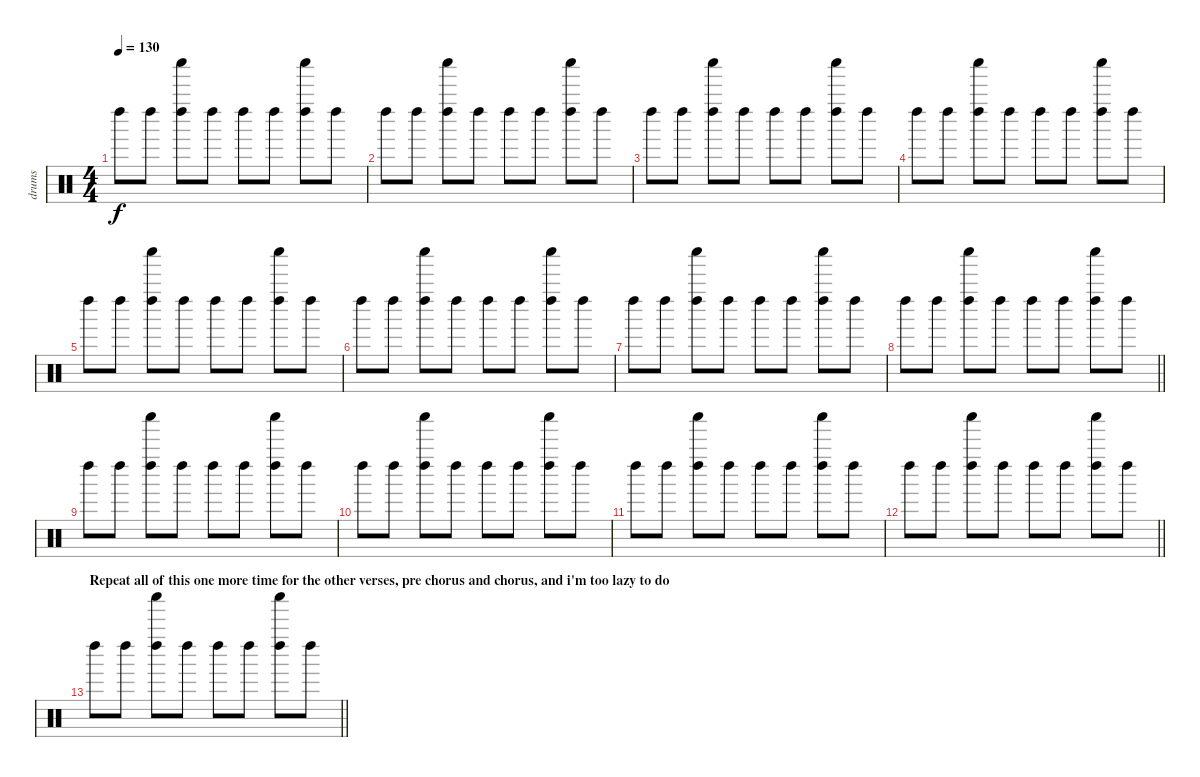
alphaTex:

\track ("drums" "drums") {instrument percussion}
\staff {score}
\articulation defaults
\ts (4 4)
\tempo 130
\clef neutral
\ks c "Left Maraca (hit)".8{dy f} "Left Maraca (hit)".8
("Left Maraca (hit)" "Shaker (hit)").8 "Left Maraca (hit)".8 "Left Maraca (hit)".8 "Left Maraca (hit)".8 ("Left Maraca (hit)" "Shaker (hit)").8 "Left Maraca (hit)".8 |
"Left Maraca (hit)".8 "Left Maraca (hit)".8 ("Left Maraca (hit)" "Shaker (hit)").8 "Left Maraca (hit)".8 "Left Maraca (hit)".8 "Left Maraca (hit)".8 ("Left Maraca (hit)" "Shaker (hit)").8 "Left Maraca (hit)".8 |
"Left Maraca (hit)".8 "Left Maraca (hit)".8 ("Left Maraca (hit)" "Shaker (hit)").8 "Left Maraca (hit)".8 "Left Maraca (hit)".8 "Left Maraca (hit)".8 ("Left Maraca (hit)" "Shaker (hit)").8 "Left Maraca (hit)".8 |
"Left Maraca (hit)".8 "Left Maraca (hit)".8 ("Left Maraca (hit)" "Shaker (hit)").8 "Left Maraca (hit)".8 "Left Maraca (hit)".8 "Left Maraca (hit)".8 ("Left Maraca (hit)" "Shaker (hit)").8 "Left Maraca (hit)".8 |
"Left Maraca (hit)".8 "Left Maraca (hit)".8 ("Left Maraca (hit)" "Shaker (hit)").8 "Left Maraca (hit)".8 "Left Maraca (hit)".8 "Left Maraca (hit)".8 ("Left Maraca (hit)" "Shaker (hit)").8 "Left Maraca (hit)".8 |
"Left Maraca (hit)".8 "Left Maraca (hit)".8 ("Left Maraca (hit)" "Shaker (hit)").8 "Left Maraca (hit)".8 "Left Maraca (hit)".8 "Left Maraca (hit)".8 ("Left Maraca (hit)" "Shaker (hit)").8 "Left Maraca (hit)".8 |
"Left Maraca (hit)".8 "Left Maraca (hit)".8 ("Left Maraca (hit)" "Shaker (hit)").8 "Left Maraca (hit)".8 "Left Maraca (hit)".8 "Left Maraca (hit)".8 ("Left Maraca (hit)" "Shaker (hit)").8 "Left Maraca (hit)".8 |
\barLineRight lightlight "Left Maraca (hit)".8 "Left Maraca (hit)".8
("Left Maraca (hit)" "Shaker (hit)").8 "Left Maraca (hit)".8 "Left Maraca (hit)".8 "Left Maraca (hit)".8 ("Left Maraca (hit)" "Shaker (hit)").8 "Left Maraca (hit)".8 |
"Left Maraca (hit)".8 "Left Maraca (hit)".8 ("Left Maraca (hit)" "Shaker (hit)").8 "Left Maraca (hit)".8 "Left Maraca (hit)".8 "Left Maraca (hit)".8 ("Left Maraca (hit)" "Shaker (hit)").8 "Left Maraca (hit)".8 |
"Left Maraca (hit)".8 "Left Maraca (hit)".8 ("Left Maraca (hit)" "Shaker (hit)").8 "Left Maraca (hit)".8 "Left Maraca (hit)".8 "Left Maraca (hit)".8 ("Left Maraca (hit)" "Shaker (hit)").8 "Left Maraca (hit)".8 |
"Left Maraca (hit)".8 "Left Maraca (hit)".8 ("Left Maraca (hit)" "Shaker (hit)").8 "Left Maraca (hit)".8 "Left Maraca (hit)".8 "Left Maraca (hit)".8 ("Left Maraca (hit)" "Shaker (hit)").8 "Left Maraca (hit)".8 |
\barLineRight lightlight "Left Maraca (hit)".8 "Left Maraca (hit)".8
("Left Maraca (hit)" "Shaker (hit)").8 "Left Maraca (hit)".8 "Left Maraca (hit)".8 "Left Maraca (hit)".8 ("Left Maraca (hit)" "Shaker (hit)").8 "Left Maraca (hit)".8 |
\section ("" "Repeat all of this one more time for the other verses, pre chorus and chorus, and i'm too lazy to do")
\barLineRight lightlight "Left Maraca (hit)".8 "Left Maraca (hit)".8
("Left Maraca (hit)" "Shaker (hit)").8 "Left Maraca (hit)".8 "Left Maraca (hit)".8 "Left Maraca (hit)".8 ("Left Maraca (hit)" "Shaker (hit)").8 "Left Maraca (hit)".8
